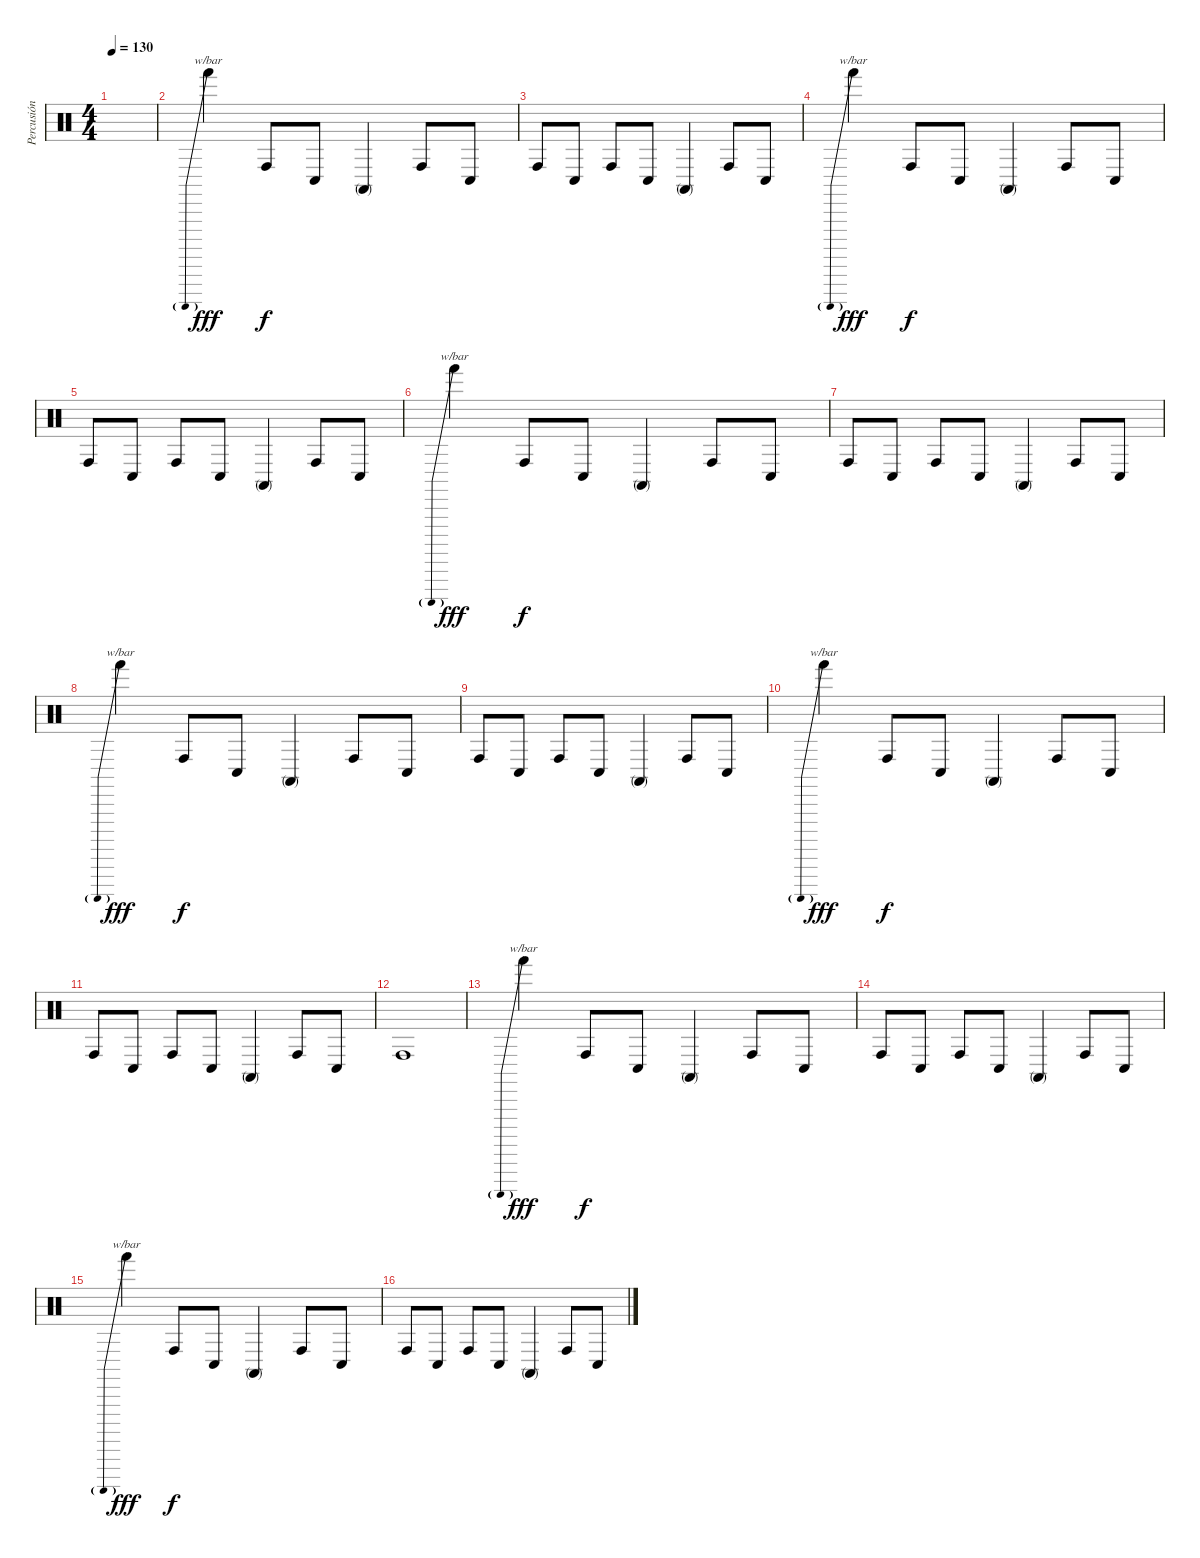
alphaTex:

\track ("Percusión" "Percusión") {instrument percussion}
\staff {score}
\articulation defaults
\ts (4 4)
\tempo 130
\clef neutral
\ks c
|
"Hand (hit)".4{tbe (predive default 0 -8 60 -8) dy fff} "Conga high (hit)".8{dy f} "Conga low (hit)".8 "Conga high (mute)".4 "Conga high (hit)".8 "Conga low (hit)".8 |
"Conga high (hit)".8 "Conga low (hit)".8 "Conga high (hit)".8 "Conga low (hit)".8 "Conga high (mute)".4 "Conga high (hit)".8 "Conga low (hit)".8 |
"Hand (hit)".4{tbe (predive default 0 -8 60 -8) dy fff} "Conga high (hit)".8{dy f} "Conga low (hit)".8 "Conga high (mute)".4 "Conga high (hit)".8 "Conga low (hit)".8 |
"Conga high (hit)".8 "Conga low (hit)".8 "Conga high (hit)".8 "Conga low (hit)".8 "Conga high (mute)".4 "Conga high (hit)".8 "Conga low (hit)".8 |
"Hand (hit)".4{tbe (predive default 0 -8 60 -8) dy fff} "Conga high (hit)".8{dy f} "Conga low (hit)".8 "Conga high (mute)".4 "Conga high (hit)".8 "Conga low (hit)".8 |
"Conga high (hit)".8 "Conga low (hit)".8 "Conga high (hit)".8 "Conga low (hit)".8 "Conga high (mute)".4 "Conga high (hit)".8 "Conga low (hit)".8 |
"Hand (hit)".4{tbe (predive default 0 -8 60 -8) dy fff} "Conga high (hit)".8{dy f} "Conga low (hit)".8 "Conga high (mute)".4 "Conga high (hit)".8 "Conga low (hit)".8 |
"Conga high (hit)".8 "Conga low (hit)".8 "Conga high (hit)".8 "Conga low (hit)".8 "Conga high (mute)".4 "Conga high (hit)".8 "Conga low (hit)".8 |
"Hand (hit)".4{tbe (predive default 0 -8 60 -8) dy fff} "Conga high (hit)".8{dy f} "Conga low (hit)".8 "Conga high (mute)".4 "Conga high (hit)".8 "Conga low (hit)".8 |
"Conga high (hit)".8 "Conga low (hit)".8 "Conga high (hit)".8 "Conga low (hit)".8 "Conga high (mute)".4 "Conga high (hit)".8 "Conga low (hit)".8 |
"Conga high (hit)".1 |
"Hand (hit)".4{tbe (predive default 0 -8 60 -8) dy fff} "Conga high (hit)".8{dy f} "Conga low (hit)".8 "Conga high (mute)".4 "Conga high (hit)".8 "Conga low (hit)".8 |
"Conga high (hit)".8 "Conga low (hit)".8 "Conga high (hit)".8 "Conga low (hit)".8 "Conga high (mute)".4 "Conga high (hit)".8 "Conga low (hit)".8 |
"Hand (hit)".4{tbe (predive default 0 -8 60 -8) dy fff} "Conga high (hit)".8{dy f} "Conga low (hit)".8 "Conga high (mute)".4 "Conga high (hit)".8 "Conga low (hit)".8 |
"Conga high (hit)".8 "Conga low (hit)".8 "Conga high (hit)".8 "Conga low (hit)".8 "Conga high (mute)".4 "Conga high (hit)".8 "Conga low (hit)".8
